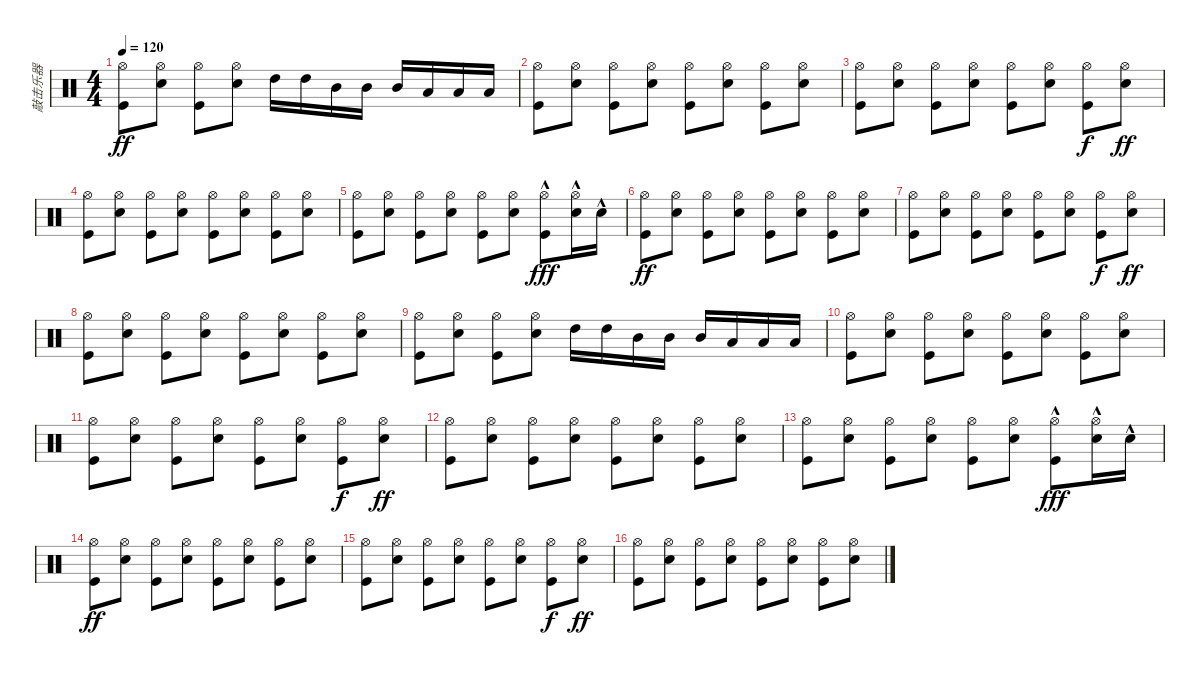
\track ("敲击乐器" "敲击乐器") {instrument percussion}
\staff {score}
\articulation defaults
\ts (4 4)
\tempo 120
\clef neutral
\ks c
("Hi-Hat (open)" "Kick (hit)").8{dy ff} ("Hi-Hat (open)" "Electric Snare (hit)").8 ("Hi-Hat (open)" "Kick (hit)").8 ("Hi-Hat (open)" "Electric Snare (hit)").8 "High Tom (hit)".16 "High Tom (hit)".16 "Mid Tom (hit)".16 "Mid Tom (hit)".16 "Mid Tom (hit)".16 "Low Tom (hit)".16 "Low Tom (hit)".16 "Low Floor Tom (hit)".16 |
("Hi-Hat (open)" "Kick (hit)").8 ("Hi-Hat (open)" "Electric Snare (hit)").8 ("Hi-Hat (open)" "Kick (hit)").8 ("Hi-Hat (open)" "Electric Snare (hit)").8 ("Hi-Hat (open)" "Kick (hit)").8 ("Hi-Hat (open)" "Electric Snare (hit)").8 ("Hi-Hat (open)" "Kick (hit)").8 ("Hi-Hat (open)" "Electric Snare (hit)").8 |
("Hi-Hat (open)" "Kick (hit)").8 ("Hi-Hat (open)" "Electric Snare (hit)").8 ("Hi-Hat (open)" "Kick (hit)").8 ("Hi-Hat (open)" "Electric Snare (hit)").8 ("Hi-Hat (open)" "Kick (hit)").8 ("Hi-Hat (open)" "Electric Snare (hit)").8 ("Hi-Hat (open)" "Kick (hit)").8{dy f} ("Hi-Hat (open)" "Electric Snare (hit)").8{dy ff} |
("Hi-Hat (open)" "Kick (hit)").8 ("Hi-Hat (open)" "Electric Snare (hit)").8 ("Hi-Hat (open)" "Kick (hit)").8 ("Hi-Hat (open)" "Electric Snare (hit)").8 ("Hi-Hat (open)" "Kick (hit)").8 ("Hi-Hat (open)" "Electric Snare (hit)").8 ("Hi-Hat (open)" "Kick (hit)").8 ("Hi-Hat (open)" "Electric Snare (hit)").8 |
("Hi-Hat (open)" "Kick (hit)").8 ("Hi-Hat (open)" "Electric Snare (hit)").8 ("Hi-Hat (open)" "Kick (hit)").8 ("Hi-Hat (open)" "Electric Snare (hit)").8 ("Hi-Hat (open)" "Kick (hit)").8 ("Hi-Hat (open)" "Electric Snare (hit)").8 ("Hi-Hat (open)" "Kick (hit)"{hac}).8{dy fff} ("Hi-Hat (open)" "Electric Snare (hit)"{hac}).16 "Electric Snare (hit)"{hac}.16 |
("Hi-Hat (open)" "Kick (hit)").8{dy ff} ("Hi-Hat (open)" "Electric Snare (hit)").8 ("Hi-Hat (open)" "Kick (hit)").8 ("Hi-Hat (open)" "Electric Snare (hit)").8 ("Hi-Hat (open)" "Kick (hit)").8 ("Hi-Hat (open)" "Electric Snare (hit)").8 ("Hi-Hat (open)" "Kick (hit)").8 ("Hi-Hat (open)" "Electric Snare (hit)").8 |
("Hi-Hat (open)" "Kick (hit)").8 ("Hi-Hat (open)" "Electric Snare (hit)").8 ("Hi-Hat (open)" "Kick (hit)").8 ("Hi-Hat (open)" "Electric Snare (hit)").8 ("Hi-Hat (open)" "Kick (hit)").8 ("Hi-Hat (open)" "Electric Snare (hit)").8 ("Hi-Hat (open)" "Kick (hit)").8{dy f} ("Hi-Hat (open)" "Electric Snare (hit)").8{dy ff} |
("Hi-Hat (open)" "Kick (hit)").8 ("Hi-Hat (open)" "Electric Snare (hit)").8 ("Hi-Hat (open)" "Kick (hit)").8 ("Hi-Hat (open)" "Electric Snare (hit)").8 ("Hi-Hat (open)" "Kick (hit)").8 ("Hi-Hat (open)" "Electric Snare (hit)").8 ("Hi-Hat (open)" "Kick (hit)").8 ("Hi-Hat (open)" "Electric Snare (hit)").8 |
("Hi-Hat (open)" "Kick (hit)").8 ("Hi-Hat (open)" "Electric Snare (hit)").8 ("Hi-Hat (open)" "Kick (hit)").8 ("Hi-Hat (open)" "Electric Snare (hit)").8 "High Tom (hit)".16 "High Tom (hit)".16 "Mid Tom (hit)".16 "Mid Tom (hit)".16 "Mid Tom (hit)".16 "Low Tom (hit)".16 "Low Tom (hit)".16 "Low Floor Tom (hit)".16 |
("Hi-Hat (open)" "Kick (hit)").8 ("Hi-Hat (open)" "Electric Snare (hit)").8 ("Hi-Hat (open)" "Kick (hit)").8 ("Hi-Hat (open)" "Electric Snare (hit)").8 ("Hi-Hat (open)" "Kick (hit)").8 ("Hi-Hat (open)" "Electric Snare (hit)").8 ("Hi-Hat (open)" "Kick (hit)").8 ("Hi-Hat (open)" "Electric Snare (hit)").8 |
("Hi-Hat (open)" "Kick (hit)").8 ("Hi-Hat (open)" "Electric Snare (hit)").8 ("Hi-Hat (open)" "Kick (hit)").8 ("Hi-Hat (open)" "Electric Snare (hit)").8 ("Hi-Hat (open)" "Kick (hit)").8 ("Hi-Hat (open)" "Electric Snare (hit)").8 ("Hi-Hat (open)" "Kick (hit)").8{dy f} ("Hi-Hat (open)" "Electric Snare (hit)").8{dy ff} |
("Hi-Hat (open)" "Kick (hit)").8 ("Hi-Hat (open)" "Electric Snare (hit)").8 ("Hi-Hat (open)" "Kick (hit)").8 ("Hi-Hat (open)" "Electric Snare (hit)").8 ("Hi-Hat (open)" "Kick (hit)").8 ("Hi-Hat (open)" "Electric Snare (hit)").8 ("Hi-Hat (open)" "Kick (hit)").8 ("Hi-Hat (open)" "Electric Snare (hit)").8 |
("Hi-Hat (open)" "Kick (hit)").8 ("Hi-Hat (open)" "Electric Snare (hit)").8 ("Hi-Hat (open)" "Kick (hit)").8 ("Hi-Hat (open)" "Electric Snare (hit)").8 ("Hi-Hat (open)" "Kick (hit)").8 ("Hi-Hat (open)" "Electric Snare (hit)").8 ("Hi-Hat (open)" "Kick (hit)"{hac}).8{dy fff} ("Hi-Hat (open)" "Electric Snare (hit)"{hac}).16 "Electric Snare (hit)"{hac}.16 |
("Hi-Hat (open)" "Kick (hit)").8{dy ff} ("Hi-Hat (open)" "Electric Snare (hit)").8 ("Hi-Hat (open)" "Kick (hit)").8 ("Hi-Hat (open)" "Electric Snare (hit)").8 ("Hi-Hat (open)" "Kick (hit)").8 ("Hi-Hat (open)" "Electric Snare (hit)").8 ("Hi-Hat (open)" "Kick (hit)").8 ("Hi-Hat (open)" "Electric Snare (hit)").8 |
("Hi-Hat (open)" "Kick (hit)").8 ("Hi-Hat (open)" "Electric Snare (hit)").8 ("Hi-Hat (open)" "Kick (hit)").8 ("Hi-Hat (open)" "Electric Snare (hit)").8 ("Hi-Hat (open)" "Kick (hit)").8 ("Hi-Hat (open)" "Electric Snare (hit)").8 ("Hi-Hat (open)" "Kick (hit)").8{dy f} ("Hi-Hat (open)" "Electric Snare (hit)").8{dy ff} |
("Hi-Hat (open)" "Kick (hit)").8 ("Hi-Hat (open)" "Electric Snare (hit)").8 ("Hi-Hat (open)" "Kick (hit)").8 ("Hi-Hat (open)" "Electric Snare (hit)").8 ("Hi-Hat (open)" "Kick (hit)").8 ("Hi-Hat (open)" "Electric Snare (hit)").8 ("Hi-Hat (open)" "Kick (hit)").8 ("Hi-Hat (open)" "Electric Snare (hit)").8
